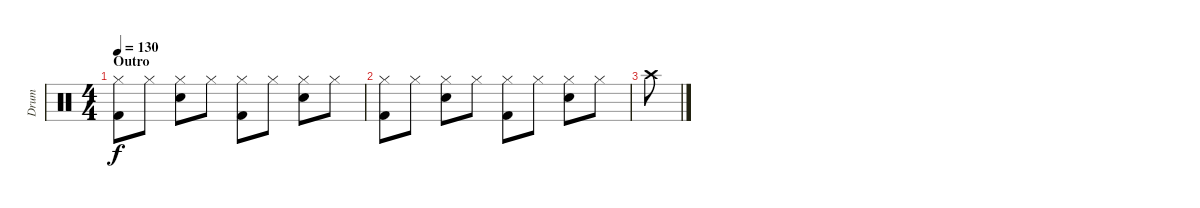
\track ("Drum" "Drum") {instrument percussion}
\staff {score}
\articulation defaults
\ts (4 4)
\section ("" "Outro")
\tempo 130
\clef neutral
\ks c
("Hi-Hat (closed)" "Kick (hit) 2").8{dy f} "Hi-Hat (closed)".8 ("Snare (hit) 2" "Hi-Hat (closed)").8 "Hi-Hat (closed)".8 ("Hi-Hat (closed)" "Kick (hit) 2").8 "Hi-Hat (closed)".8 ("Snare (hit) 2" "Hi-Hat (closed)").8 "Hi-Hat (closed)".8 |
("Hi-Hat (closed)" "Kick (hit) 2").8 "Hi-Hat (closed)".8 ("Snare (hit) 2" "Hi-Hat (closed)").8 "Hi-Hat (closed)".8 ("Hi-Hat (closed)" "Kick (hit) 2").8 "Hi-Hat (closed)".8 ("Snare (hit) 2" "Hi-Hat (closed)").8 "Hi-Hat (closed)".8 |
"Crash high (hit)".8
